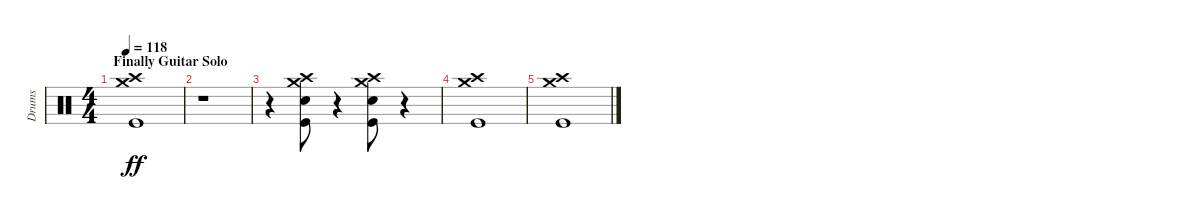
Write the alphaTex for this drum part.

\track ("Drums" "Drums") {instrument percussion}
\staff {score}
\articulation defaults
\ts (4 4)
\section ("" "Finally Guitar Solo")
\tempo 118
\clef neutral
\ks c
("Crash high (hit)" "Crash medium (hit)" "Kick (hit)").1{dy ff} |
r.1 |
r.4 ("Kick (hit)" "Crash medium (hit)" "Crash high (hit)" "Snare (hit) 2").8 r.4 ("Kick (hit)" "Crash medium (hit)" "Crash high (hit)" "Snare (hit) 2").8 r.4 |
("Kick (hit)" "Crash medium (hit)" "Crash high (hit)").1 |
("Kick (hit)" "Crash medium (hit)" "Crash high (hit)").1
